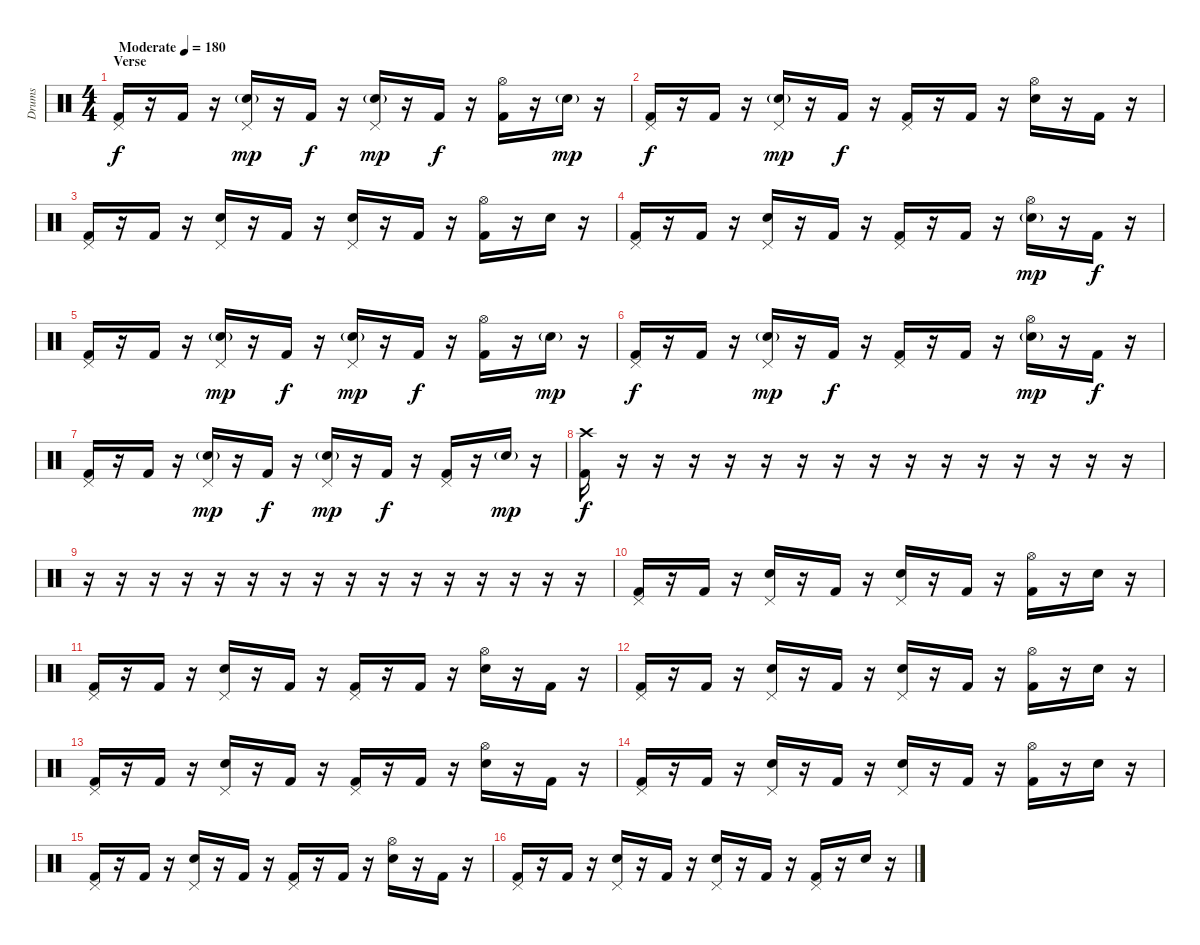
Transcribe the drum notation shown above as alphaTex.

\track ("Drums" "Drums") {instrument percussion}
\staff {score}
\articulation defaults
\ts (4 4)
\section ("" "Verse")
\tempo (180 "Moderate")
\clef neutral
\ks c
("Pedal Hi-Hat (hit)" "Kick (hit) 2").16{dy f} r.16 "Kick (hit) 2".16 r.16 ("Pedal Hi-Hat (hit)" "Electric Snare (hit)"{g}).16{dy mp} r.16 "Kick (hit) 2".16{dy f} r.16 ("Pedal Hi-Hat (hit)" "Electric Snare (hit)"{g}).16{dy mp} r.16 "Kick (hit) 2".16{dy f} r.16 ("Hi-Hat (open)" "Kick (hit) 2").16 r.16 "Electric Snare (hit)"{g}.16{dy mp} r.16 |
("Pedal Hi-Hat (hit)" "Kick (hit) 2").16{dy f} r.16 "Kick (hit) 2".16 r.16 ("Pedal Hi-Hat (hit)" "Electric Snare (hit)"{g}).16{dy mp} r.16 "Kick (hit) 2".16{dy f} r.16 ("Pedal Hi-Hat (hit)" "Kick (hit) 2").16 r.16 "Kick (hit) 2".16 r.16 ("Hi-Hat (open)" "Electric Snare (hit)").16 r.16 "Kick (hit) 2".16 r.16 |
("Pedal Hi-Hat (hit)" "Kick (hit) 2").16 r.16 "Kick (hit) 2".16 r.16 ("Pedal Hi-Hat (hit)" "Electric Snare (hit)").16 r.16 "Kick (hit) 2".16 r.16 ("Pedal Hi-Hat (hit)" "Electric Snare (hit)").16 r.16 "Kick (hit) 2".16 r.16 ("Hi-Hat (open)" "Kick (hit) 2").16 r.16 "Electric Snare (hit)".16 r.16 |
("Pedal Hi-Hat (hit)" "Kick (hit) 2").16 r.16 "Kick (hit) 2".16 r.16 ("Pedal Hi-Hat (hit)" "Electric Snare (hit)").16 r.16 "Kick (hit) 2".16 r.16 ("Pedal Hi-Hat (hit)" "Kick (hit) 2").16 r.16 "Kick (hit) 2".16 r.16 ("Hi-Hat (open)" "Electric Snare (hit)"{g}).16{dy mp} r.16 "Kick (hit) 2".16{dy f} r.16 |
("Pedal Hi-Hat (hit)" "Kick (hit) 2").16 r.16 "Kick (hit) 2".16 r.16 ("Pedal Hi-Hat (hit)" "Electric Snare (hit)"{g}).16{dy mp} r.16 "Kick (hit) 2".16{dy f} r.16 ("Pedal Hi-Hat (hit)" "Electric Snare (hit)"{g}).16{dy mp} r.16 "Kick (hit) 2".16{dy f} r.16 ("Hi-Hat (open)" "Kick (hit) 2").16 r.16 "Electric Snare (hit)"{g}.16{dy mp} r.16 |
("Pedal Hi-Hat (hit)" "Kick (hit) 2").16{dy f} r.16 "Kick (hit) 2".16 r.16 ("Pedal Hi-Hat (hit)" "Electric Snare (hit)"{g}).16{dy mp} r.16 "Kick (hit) 2".16{dy f} r.16 ("Pedal Hi-Hat (hit)" "Kick (hit) 2").16 r.16 "Kick (hit) 2".16 r.16 ("Hi-Hat (open)" "Electric Snare (hit)"{g}).16{dy mp} r.16 "Kick (hit) 2".16{dy f} r.16 |
("Pedal Hi-Hat (hit)" "Kick (hit) 2").16 r.16 "Kick (hit) 2".16 r.16 ("Pedal Hi-Hat (hit)" "Electric Snare (hit)"{g}).16{dy mp} r.16 "Kick (hit) 2".16{dy f} r.16 ("Pedal Hi-Hat (hit)" "Electric Snare (hit)"{g}).16{dy mp} r.16 "Kick (hit) 2".16{dy f} r.16 ("Pedal Hi-Hat (hit)" "Kick (hit) 2").16 r.16 "Electric Snare (hit)"{g}.16{dy mp} r.16 |
("Crash high (hit)" "Kick (hit) 2").16{dy f} r.16 r.16 r.16 r.16 r.16 r.16 r.16 r.16 r.16 r.16 r.16 r.16 r.16 r.16 r.16 |
r.16 r.16 r.16 r.16 r.16 r.16 r.16 r.16 r.16 r.16 r.16 r.16 r.16 r.16 r.16 r.16 |
("Pedal Hi-Hat (hit)" "Kick (hit) 2").16{volume 8} r.16 "Kick (hit) 2".16 r.16 ("Pedal Hi-Hat (hit)" "Electric Snare (hit)").16 r.16 "Kick (hit) 2".16 r.16 ("Pedal Hi-Hat (hit)" "Electric Snare (hit)").16 r.16 "Kick (hit) 2".16 r.16 ("Hi-Hat (open)" "Kick (hit) 2").16 r.16 "Electric Snare (hit)".16 r.16 |
("Pedal Hi-Hat (hit)" "Kick (hit) 2").16 r.16 "Kick (hit) 2".16 r.16 ("Pedal Hi-Hat (hit)" "Electric Snare (hit)").16 r.16 "Kick (hit) 2".16 r.16 ("Pedal Hi-Hat (hit)" "Kick (hit) 2").16 r.16 "Kick (hit) 2".16 r.16 ("Hi-Hat (open)" "Electric Snare (hit)").16 r.16 "Kick (hit) 2".16 r.16 |
("Pedal Hi-Hat (hit)" "Kick (hit) 2").16 r.16 "Kick (hit) 2".16 r.16 ("Pedal Hi-Hat (hit)" "Electric Snare (hit)").16 r.16 "Kick (hit) 2".16 r.16 ("Pedal Hi-Hat (hit)" "Electric Snare (hit)").16 r.16 "Kick (hit) 2".16 r.16 ("Hi-Hat (open)" "Kick (hit) 2").16 r.16 "Electric Snare (hit)".16 r.16 |
("Pedal Hi-Hat (hit)" "Kick (hit) 2").16 r.16 "Kick (hit) 2".16 r.16 ("Pedal Hi-Hat (hit)" "Electric Snare (hit)").16 r.16 "Kick (hit) 2".16 r.16 ("Pedal Hi-Hat (hit)" "Kick (hit) 2").16 r.16 "Kick (hit) 2".16 r.16 ("Hi-Hat (open)" "Electric Snare (hit)").16 r.16 "Kick (hit) 2".16 r.16 |
("Pedal Hi-Hat (hit)" "Kick (hit) 2").16 r.16 "Kick (hit) 2".16 r.16 ("Pedal Hi-Hat (hit)" "Electric Snare (hit)").16 r.16 "Kick (hit) 2".16 r.16 ("Pedal Hi-Hat (hit)" "Electric Snare (hit)").16 r.16 "Kick (hit) 2".16 r.16 ("Hi-Hat (open)" "Kick (hit) 2").16 r.16 "Electric Snare (hit)".16 r.16 |
("Pedal Hi-Hat (hit)" "Kick (hit) 2").16 r.16 "Kick (hit) 2".16 r.16 ("Pedal Hi-Hat (hit)" "Electric Snare (hit)").16 r.16 "Kick (hit) 2".16 r.16 ("Pedal Hi-Hat (hit)" "Kick (hit) 2").16 r.16 "Kick (hit) 2".16 r.16 ("Hi-Hat (open)" "Electric Snare (hit)").16 r.16 "Kick (hit) 2".16 r.16 |
("Pedal Hi-Hat (hit)" "Kick (hit) 2").16 r.16 "Kick (hit) 2".16 r.16 ("Pedal Hi-Hat (hit)" "Electric Snare (hit)").16 r.16 "Kick (hit) 2".16 r.16 ("Pedal Hi-Hat (hit)" "Electric Snare (hit)").16 r.16 "Kick (hit) 2".16 r.16 ("Pedal Hi-Hat (hit)" "Kick (hit) 2").16 r.16 "Electric Snare (hit)".16 r.16
